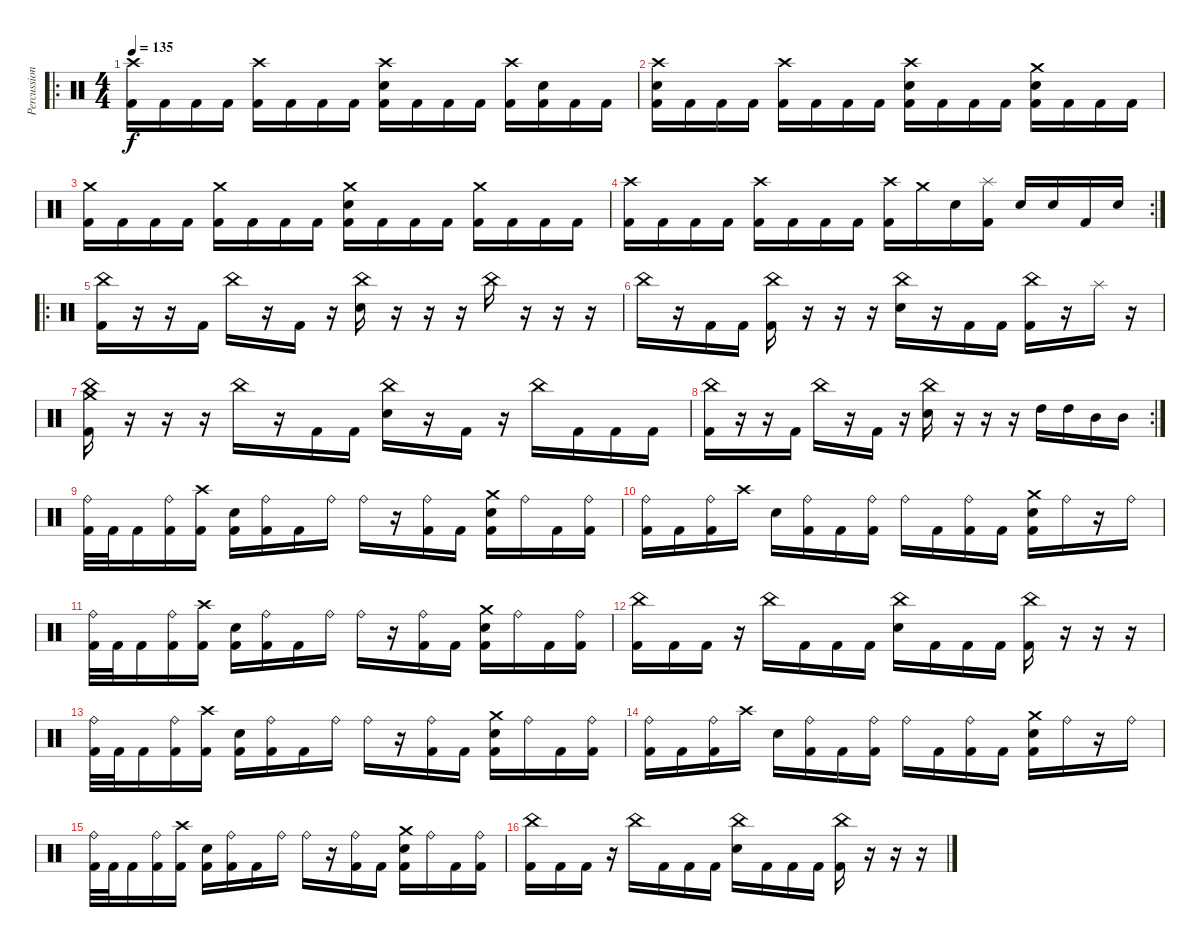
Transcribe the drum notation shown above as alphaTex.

\track ("Percussion" "Percussion") {instrument percussion}
\staff {score}
\articulation defaults
\ro
\ts (4 4)
\tempo 135
\clef neutral
\ks c
("Crash high (hit)" "Kick (hit) 2").16{dy f} "Kick (hit) 2".16 "Kick (hit) 2".16 "Kick (hit) 2".16 ("Crash high (hit)" "Kick (hit) 2").16 "Kick (hit) 2".16 "Kick (hit) 2".16 "Kick (hit) 2".16 ("Crash high (hit)" "Electric Snare (hit)" "Kick (hit) 2").16 "Kick (hit) 2".16 "Kick (hit) 2".16 "Kick (hit) 2".16 ("Crash high (hit)" "Kick (hit) 2").16 ("Electric Snare (hit)" "Kick (hit) 2").16 "Kick (hit) 2".16 "Kick (hit) 2".16 |
("Crash high (hit)" "Electric Snare (hit)" "Kick (hit) 2").16 "Kick (hit) 2".16 "Kick (hit) 2".16 "Kick (hit) 2".16 ("Crash high (hit)" "Kick (hit) 2").16 "Kick (hit) 2".16 "Kick (hit) 2".16 "Kick (hit) 2".16 ("Crash high (hit)" "Electric Snare (hit)" "Kick (hit) 2").16 "Kick (hit) 2".16 "Kick (hit) 2".16 "Kick (hit) 2".16 ("Crash medium (hit)" "Electric Snare (hit)" "Kick (hit) 2").16 "Kick (hit) 2".16 "Kick (hit) 2".16 "Kick (hit) 2".16 |
("Crash medium (hit)" "Kick (hit) 2").16 "Kick (hit) 2".16 "Kick (hit) 2".16 "Kick (hit) 2".16 ("Crash medium (hit)" "Kick (hit) 2").16 "Kick (hit) 2".16 "Kick (hit) 2".16 "Kick (hit) 2".16 ("Crash medium (hit)" "Electric Snare (hit)" "Kick (hit) 2").16 "Kick (hit) 2".16 "Kick (hit) 2".16 "Kick (hit) 2".16 ("Crash medium (hit)" "Kick (hit) 2").16 "Kick (hit) 2".16 "Kick (hit) 2".16 "Kick (hit) 2".16 |
\rc 2
("Crash high (hit)" "Kick (hit) 2").16 "Kick (hit) 2".16 "Kick (hit) 2".16 "Kick (hit) 2".16 ("Crash high (hit)" "Kick (hit) 2").16 "Kick (hit) 2".16 "Kick (hit) 2".16 "Kick (hit) 2".16 ("Crash high (hit)" "Kick (hit) 2").16 "Crash medium (hit)".16 "Electric Snare (hit)".16 ("Splash (hit)" "Kick (hit) 2").16 "Electric Snare (hit)".16 "Electric Snare (hit)".16 "Kick (hit) 2".16 "Electric Snare (hit)".16 |
\ro
("China (hit)" "Kick (hit) 2").16 r.16 r.16 "Kick (hit) 2".16 "China (hit)".16 r.16 "Kick (hit) 2".16 r.16 ("China (hit)" "Electric Snare (hit)").16 r.16 r.16 r.16 "China (hit)".16 r.16 r.16 r.16 |
"China (hit)".16 r.16 "Kick (hit) 2".16 "Kick (hit) 2".16 ("China (hit)" "Kick (hit) 2").16 r.16 r.16 r.16 ("China (hit)" "Electric Snare (hit)").16 r.16 "Kick (hit) 2".16 "Kick (hit) 2".16 ("China (hit)" "Kick (hit) 2").16 r.16 "Splash (hit)".16 r.16 |
("China (hit)" "Crash medium (hit)" "Kick (hit) 2").16 r.16 r.16 r.16 "China (hit)".16 r.16 "Kick (hit) 2".16 "Kick (hit) 2".16 ("China (hit)" "Electric Snare (hit)").16 r.16 "Kick (hit) 2".16 r.16 "China (hit)".16 "Kick (hit) 2".16 "Kick (hit) 2".16 "Kick (hit) 2".16 |
\rc 2
("China (hit)" "Kick (hit) 2").16 r.16 r.16 "Kick (hit) 2".16 "China (hit)".16 r.16 "Kick (hit) 2".16 r.16 ("China (hit)" "Electric Snare (hit)").16 r.16 r.16 r.16 "High Tom (hit)".16 "High Tom (hit)".16 "Mid Tom (hit)".16 "Mid Tom (hit)".16 |
("Ride (bell)" "Kick (hit) 2").32 "Kick (hit) 2".32 "Kick (hit) 2".16 ("Ride (bell)" "Kick (hit) 2").16 ("Crash high (hit)" "Kick (hit) 2").16 ("Electric Snare (hit)" "Kick (hit) 2").16 ("Ride (bell)" "Kick (hit) 2").16 "Kick (hit) 2".16 "Ride (bell)".16 "Ride (bell)".16 r.16 ("Ride (bell)" "Kick (hit) 2").16 "Kick (hit) 2".16 ("Crash medium (hit)" "Electric Snare (hit)" "Kick (hit) 2").16 "Ride (bell)".16 "Kick (hit) 2".16 ("Ride (bell)" "Kick (hit) 2").16 |
("Ride (bell)" "Kick (hit) 2").16 "Kick (hit) 2".16 ("Ride (bell)" "Kick (hit) 2").16 "Crash high (hit)".16 "Electric Snare (hit)".16 ("Ride (bell)" "Kick (hit) 2").16 "Kick (hit) 2".16 ("Ride (bell)" "Kick (hit) 2").16 "Ride (bell)".16 "Kick (hit) 2".16 ("Ride (bell)" "Kick (hit) 2").16 "Kick (hit) 2".16 ("Crash medium (hit)" "Electric Snare (hit)" "Kick (hit) 2").16 "Ride (bell)".16 r.16 "Ride (bell)".16 |
("Ride (bell)" "Kick (hit) 2").32 "Kick (hit) 2".32 "Kick (hit) 2".16 ("Ride (bell)" "Kick (hit) 2").16 ("Crash high (hit)" "Kick (hit) 2").16 ("Electric Snare (hit)" "Kick (hit) 2").16 ("Ride (bell)" "Kick (hit) 2").16 "Kick (hit) 2".16 "Ride (bell)".16 "Ride (bell)".16 r.16 ("Ride (bell)" "Kick (hit) 2").16 "Kick (hit) 2".16 ("Crash medium (hit)" "Electric Snare (hit)" "Kick (hit) 2").16 "Ride (bell)".16 "Kick (hit) 2".16 ("Ride (bell)" "Kick (hit) 2").16 |
("China (hit)" "Kick (hit) 2").16 "Kick (hit) 2".16 "Kick (hit) 2".16 r.16 "China (hit)".16 "Kick (hit) 2".16 "Kick (hit) 2".16 "Kick (hit) 2".16 ("China (hit)" "Electric Snare (hit)").16 "Kick (hit) 2".16 "Kick (hit) 2".16 "Kick (hit) 2".16 ("China (hit)" "Kick (hit) 2").16 r.16 r.16 r.16 |
("Ride (bell)" "Kick (hit) 2").32 "Kick (hit) 2".32 "Kick (hit) 2".16 ("Ride (bell)" "Kick (hit) 2").16 ("Crash high (hit)" "Kick (hit) 2").16 ("Electric Snare (hit)" "Kick (hit) 2").16 ("Ride (bell)" "Kick (hit) 2").16 "Kick (hit) 2".16 "Ride (bell)".16 "Ride (bell)".16 r.16 ("Ride (bell)" "Kick (hit) 2").16 "Kick (hit) 2".16 ("Crash medium (hit)" "Electric Snare (hit)" "Kick (hit) 2").16 "Ride (bell)".16 "Kick (hit) 2".16 ("Ride (bell)" "Kick (hit) 2").16 |
("Ride (bell)" "Kick (hit) 2").16 "Kick (hit) 2".16 ("Ride (bell)" "Kick (hit) 2").16 "Crash high (hit)".16 "Electric Snare (hit)".16 ("Ride (bell)" "Kick (hit) 2").16 "Kick (hit) 2".16 ("Ride (bell)" "Kick (hit) 2").16 "Ride (bell)".16 "Kick (hit) 2".16 ("Ride (bell)" "Kick (hit) 2").16 "Kick (hit) 2".16 ("Crash medium (hit)" "Electric Snare (hit)" "Kick (hit) 2").16 "Ride (bell)".16 r.16 "Ride (bell)".16 |
("Ride (bell)" "Kick (hit) 2").32 "Kick (hit) 2".32 "Kick (hit) 2".16 ("Ride (bell)" "Kick (hit) 2").16 ("Crash high (hit)" "Kick (hit) 2").16 ("Electric Snare (hit)" "Kick (hit) 2").16 ("Ride (bell)" "Kick (hit) 2").16 "Kick (hit) 2".16 "Ride (bell)".16 "Ride (bell)".16 r.16 ("Ride (bell)" "Kick (hit) 2").16 "Kick (hit) 2".16 ("Crash medium (hit)" "Electric Snare (hit)" "Kick (hit) 2").16 "Ride (bell)".16 "Kick (hit) 2".16 ("Ride (bell)" "Kick (hit) 2").16 |
("China (hit)" "Kick (hit) 2").16 "Kick (hit) 2".16 "Kick (hit) 2".16 r.16 "China (hit)".16 "Kick (hit) 2".16 "Kick (hit) 2".16 "Kick (hit) 2".16 ("China (hit)" "Electric Snare (hit)").16 "Kick (hit) 2".16 "Kick (hit) 2".16 "Kick (hit) 2".16 ("China (hit)" "Kick (hit) 2").16 r.16 r.16 r.16
